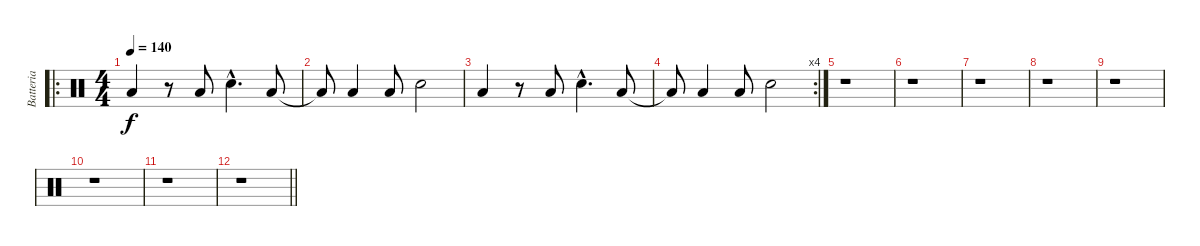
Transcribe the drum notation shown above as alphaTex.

\track ("Batteria" "Batteria") {instrument percussion}
\staff {score}
\articulation defaults
\ro
\ts (4 4)
\tempo 140
\clef neutral
\ks c "Low Floor Tom (hit)".4{dy f}
r.8 "Low Floor Tom (hit)".8 "Snare (hit) 2"{hac}.4{d} "Low Floor Tom (hit)".8 |
"Low Floor Tom (hit)"{t}.8 "Low Floor Tom (hit)".4 "Low Floor Tom (hit)".8 "Snare (hit) 2".2 |
"Low Floor Tom (hit)".4 r.8 "Low Floor Tom (hit)".8 "Snare (hit) 2"{hac}.4{d} "Low Floor Tom (hit)".8 |
\rc 4 "Low Floor Tom (hit)"{t}.8 "Low Floor Tom (hit)".4 "Low Floor Tom (hit)".8 "Snare (hit) 2".2
|
r.1 |
r.1 |
r.1 |
r.1 |
r.1 |
r.1 |
r.1 |
\barLineRight lightlight
r.1
